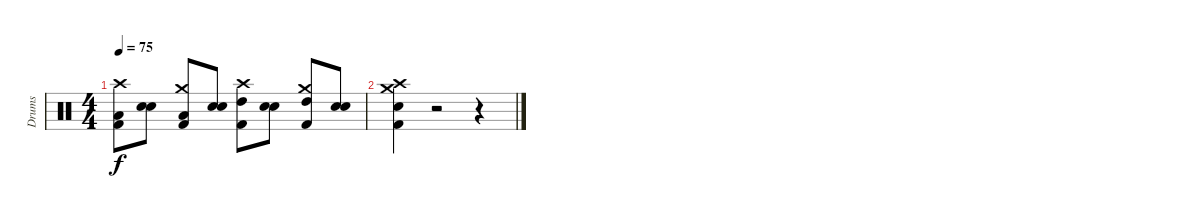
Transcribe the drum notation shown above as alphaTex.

\track ("Drums" "Drums") {instrument percussion}
\staff {score}
\articulation defaults
\ts (4 4)
\tempo 75
\clef neutral
\ks c
("Crash high (hit)" "Kick (hit) 2" "Low Floor Tom (hit)").8{dy f} ("Snare (hit) 2" "Snare (hit) 2").8 ("Crash medium (hit)" "Kick (hit) 2" "Low Tom (hit)").8 ("Snare (hit) 2" "Snare (hit) 2").8 ("Crash high (hit)" "Kick (hit) 2" "High Tom (hit)").8 ("Snare (hit) 2" "Snare (hit) 2").8 ("Crash medium (hit)" "Kick (hit) 2" "High Tom (hit)").8 ("Snare (hit) 2" "Snare (hit) 2").8 |
("Crash medium (hit)" "Crash high (hit)" "Snare (hit) 2" "Kick (hit) 2").4 r.2 r.4
